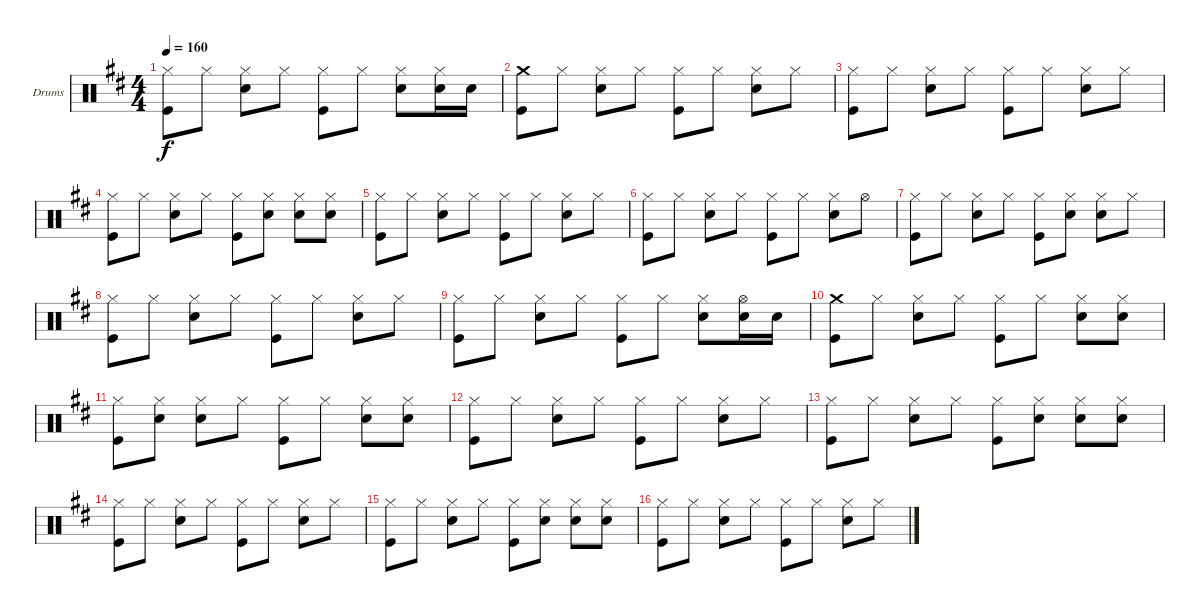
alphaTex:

\defaultSystemsLayout 4
\bracketExtendMode groupsimilarinstruments
\firstSystemTrackNameOrientation horizontal
\otherSystemsTrackNameOrientation horizontal
\track ("Drumkit" "Drums") {instrument percussion}
\staff {score}
\articulation defaults
\ts (4 4)
\tempo 160
\clef neutral
\scale
0.333333
\ks d
("Hi-Hat (closed)" "Kick (hit)").8{dy f} "Hi-Hat (closed)".8 ("Hi-Hat (closed)" "Snare (hit) 2").8 "Hi-Hat (closed)".8 ("Hi-Hat (closed)" "Kick (hit)").8 "Hi-Hat (closed)".8 ("Snare (hit) 2" "Hi-Hat (closed)").8 ("Hi-Hat (closed)" "Snare (hit) 2").16 "Snare (hit) 2".16 |
\scale
0.333333 ("Crash medium (hit)" "Kick (hit)").8 "Hi-Hat (closed)".8 ("Hi-Hat (closed)" "Snare (hit) 2").8 "Hi-Hat (closed)".8 ("Hi-Hat (closed)" "Kick (hit)").8 "Hi-Hat (closed)".8 ("Hi-Hat (closed)" "Snare (hit) 2").8 "Hi-Hat (closed)".8 |
\scale
0.333333 ("Hi-Hat (closed)" "Kick (hit)").8 "Hi-Hat (closed)".8 ("Hi-Hat (closed)" "Snare (hit) 2").8 "Hi-Hat (closed)".8 ("Hi-Hat (closed)" "Kick (hit)").8 "Hi-Hat (closed)".8 ("Hi-Hat (closed)" "Snare (hit) 2").8 "Hi-Hat (closed)".8 |
\scale
0.333333 ("Hi-Hat (closed)" "Kick (hit)").8 "Hi-Hat (closed)".8 ("Hi-Hat (closed)" "Snare (hit) 2").8 "Hi-Hat (closed)".8 ("Hi-Hat (closed)" "Kick (hit)").8 ("Hi-Hat (closed)" "Snare (hit) 2").8 ("Hi-Hat (closed)" "Snare (hit) 2").8 ("Hi-Hat (closed)" "Snare (hit) 2").8 |
\scale
0.333333 ("Hi-Hat (closed)" "Kick (hit)").8 "Hi-Hat (closed)".8 ("Hi-Hat (closed)" "Snare (hit) 2").8 "Hi-Hat (closed)".8 ("Hi-Hat (closed)" "Kick (hit)").8 "Hi-Hat (closed)".8 ("Hi-Hat (closed)" "Snare (hit) 2").8 "Hi-Hat (closed)".8 |
\scale
0.333333 ("Hi-Hat (closed)" "Kick (hit)").8 "Hi-Hat (closed)".8 ("Hi-Hat (closed)" "Snare (hit) 2").8 "Hi-Hat (closed)".8 ("Hi-Hat (closed)" "Kick (hit)").8 "Hi-Hat (closed)".8 ("Hi-Hat (closed)" "Snare (hit) 2").8 "Hi-Hat (open)".8 |
\scale
0.333333 ("Hi-Hat (closed)" "Kick (hit)").8 "Hi-Hat (closed)".8 ("Hi-Hat (closed)" "Snare (hit) 2").8 "Hi-Hat (closed)".8 ("Hi-Hat (closed)" "Kick (hit)").8 ("Hi-Hat (closed)" "Snare (hit) 2").8 ("Hi-Hat (closed)" "Snare (hit) 2").8 "Hi-Hat (closed)".8 |
\scale
0.333333 ("Hi-Hat (closed)" "Kick (hit)").8 "Hi-Hat (closed)".8 ("Hi-Hat (closed)" "Snare (hit) 2").8 "Hi-Hat (closed)".8 ("Hi-Hat (closed)" "Kick (hit)").8 "Hi-Hat (closed)".8 ("Hi-Hat (closed)" "Snare (hit) 2").8 "Hi-Hat (closed)".8 |
\scale
0.333333 ("Hi-Hat (closed)" "Kick (hit)").8 "Hi-Hat (closed)".8 ("Hi-Hat (closed)" "Snare (hit) 2").8 "Hi-Hat (closed)".8 ("Kick (hit)" "Hi-Hat (closed)").8 "Hi-Hat (closed)".8 ("Hi-Hat (closed)" "Snare (hit) 2").8 ("Hi-Hat (open)" "Snare (hit) 2").16 "Snare (hit) 2".16 |
\scale
0.333333 ("Crash medium (hit)" "Kick (hit)").8 "Hi-Hat (closed)".8 ("Hi-Hat (closed)" "Snare (hit) 2").8 "Hi-Hat (closed)".8 ("Hi-Hat (closed)" "Kick (hit)").8 "Hi-Hat (closed)".8 ("Hi-Hat (closed)" "Snare (hit) 2").8 ("Snare (hit) 2" "Hi-Hat (closed)").8 |
\scale
0.333333 ("Hi-Hat (closed)" "Kick (hit)").8 ("Hi-Hat (closed)" "Snare (hit) 2").8 ("Hi-Hat (closed)" "Snare (hit) 2").8 "Hi-Hat (closed)".8 ("Hi-Hat (closed)" "Kick (hit)").8 "Hi-Hat (closed)".8 ("Hi-Hat (closed)" "Snare (hit) 2").8 ("Hi-Hat (closed)" "Snare (hit) 2").8 |
\scale
0.333333 ("Hi-Hat (closed)" "Kick (hit)").8 "Hi-Hat (closed)".8 ("Hi-Hat (closed)" "Snare (hit) 2").8 "Hi-Hat (closed)".8 ("Hi-Hat (closed)" "Kick (hit)").8 "Hi-Hat (closed)".8 ("Hi-Hat (closed)" "Snare (hit) 2").8 "Hi-Hat (closed)".8 |
\scale
0.333333 ("Hi-Hat (closed)" "Kick (hit)").8 "Hi-Hat (closed)".8 ("Hi-Hat (closed)" "Snare (hit) 2").8 "Hi-Hat (closed)".8 ("Hi-Hat (closed)" "Kick (hit)").8 ("Hi-Hat (closed)" "Snare (hit) 2").8 ("Hi-Hat (closed)" "Snare (hit) 2").8 ("Hi-Hat (closed)" "Snare (hit) 2").8 |
\scale
0.333333 ("Hi-Hat (closed)" "Kick (hit)").8 "Hi-Hat (closed)".8 ("Hi-Hat (closed)" "Snare (hit) 2").8 "Hi-Hat (closed)".8 ("Hi-Hat (closed)" "Kick (hit)").8 "Hi-Hat (closed)".8 ("Hi-Hat (closed)" "Snare (hit) 2").8 "Hi-Hat (closed)".8 |
\scale
0.333333 ("Hi-Hat (closed)" "Kick (hit)").8 "Hi-Hat (closed)".8 ("Hi-Hat (closed)" "Snare (hit) 2").8 "Hi-Hat (closed)".8 ("Hi-Hat (closed)" "Kick (hit)").8 ("Hi-Hat (closed)" "Snare (hit) 2").8 ("Snare (hit) 2" "Hi-Hat (closed)").8 ("Snare (hit) 2" "Hi-Hat (closed)").8 |
\scale
0.333333 ("Kick (hit)" "Hi-Hat (closed)").8 "Hi-Hat (closed)".8 ("Snare (hit) 2" "Hi-Hat (closed)").8 "Hi-Hat (closed)".8 ("Kick (hit)" "Hi-Hat (closed)").8 "Hi-Hat (closed)".8 ("Snare (hit) 2" "Hi-Hat (closed)").8 "Hi-Hat (closed)".8
